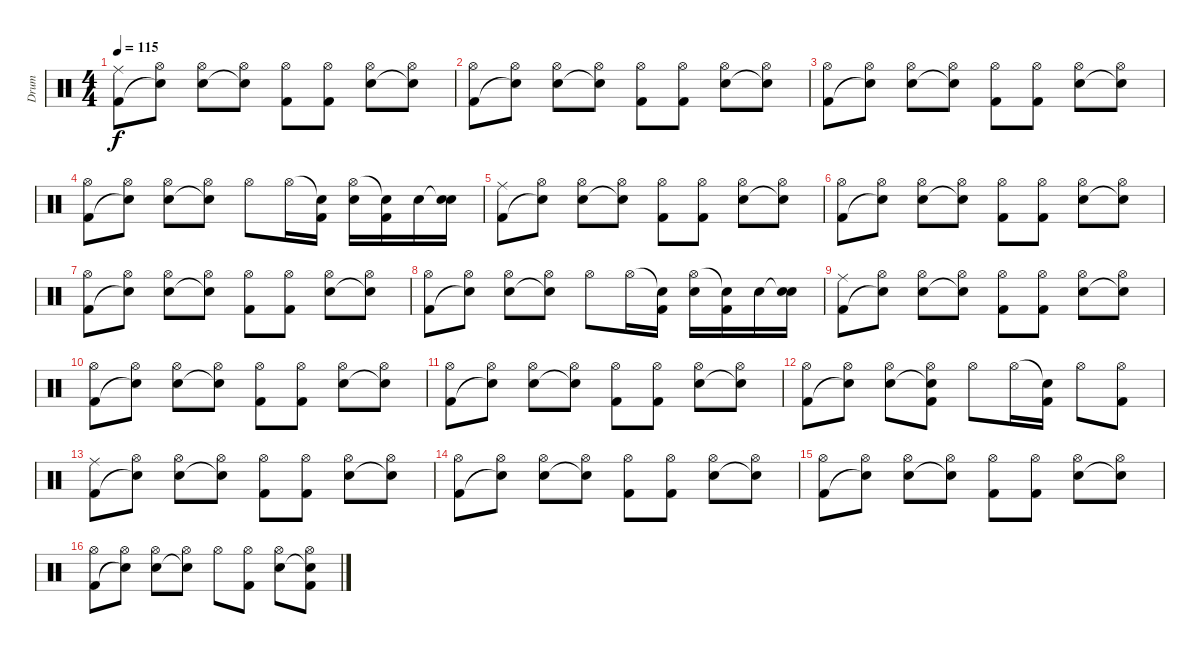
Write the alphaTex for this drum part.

\track ("Drum" "Drum") {instrument percussion}
\staff {score}
\articulation defaults
\ts (4 4)
\tempo 115
\clef neutral
\ks c
("Ride (middle)" "Kick (hit) 2").8{dy f} ("Hi-Hat (open)" "Snare (hit)"{t}).8 ("Hi-Hat (open)" "Electric Snare (hit)").8 ("Hi-Hat (open)" "Snare (hit)"{t}).8 ("Hi-Hat (open)" "Kick (hit) 2").8 ("Hi-Hat (open)" "Kick (hit) 2").8 ("Hi-Hat (open)" "Electric Snare (hit)").8 ("Hi-Hat (open)" "Snare (hit)"{t}).8 |
("Hi-Hat (open)" "Kick (hit) 2").8 ("Hi-Hat (open)" "Snare (hit)"{t}).8 ("Hi-Hat (open)" "Electric Snare (hit)").8 ("Hi-Hat (open)" "Snare (hit)"{t}).8 ("Hi-Hat (open)" "Kick (hit) 2").8 ("Hi-Hat (open)" "Kick (hit) 2").8 ("Hi-Hat (open)" "Electric Snare (hit)").8 ("Hi-Hat (open)" "Snare (hit)"{t}).8 |
("Hi-Hat (open)" "Kick (hit) 2").8 ("Hi-Hat (open)" "Snare (hit)"{t}).8 ("Hi-Hat (open)" "Electric Snare (hit)").8 ("Hi-Hat (open)" "Snare (hit)"{t}).8 ("Hi-Hat (open)" "Kick (hit) 2").8 ("Hi-Hat (open)" "Kick (hit) 2").8 ("Hi-Hat (open)" "Electric Snare (hit)").8 ("Hi-Hat (open)" "Snare (hit)"{t}).8 |
("Hi-Hat (open)" "Kick (hit) 2").8 ("Hi-Hat (open)" "Snare (hit)"{t}).8 ("Hi-Hat (open)" "Electric Snare (hit)").8 ("Hi-Hat (open)" "Snare (hit)"{t}).8 "Hi-Hat (open)".8 "Hi-Hat (open)".16 ("Snare (hit)"{t} "Kick (hit) 2").16 ("Hi-Hat (open)" "Electric Snare (hit)").16 ("Snare (hit)"{t} "Kick (hit) 2").16 "Electric Snare (hit)".16 ("Snare (hit)"{t} "Electric Snare (hit)").16 |
("Ride (middle)" "Kick (hit) 2").8 ("Hi-Hat (open)" "Snare (hit)"{t}).8 ("Hi-Hat (open)" "Electric Snare (hit)").8 ("Hi-Hat (open)" "Snare (hit)"{t}).8 ("Hi-Hat (open)" "Kick (hit) 2").8 ("Hi-Hat (open)" "Kick (hit) 2").8 ("Hi-Hat (open)" "Electric Snare (hit)").8 ("Hi-Hat (open)" "Snare (hit)"{t}).8 |
("Hi-Hat (open)" "Kick (hit) 2").8 ("Hi-Hat (open)" "Snare (hit)"{t}).8 ("Hi-Hat (open)" "Electric Snare (hit)").8 ("Hi-Hat (open)" "Snare (hit)"{t}).8 ("Hi-Hat (open)" "Kick (hit) 2").8 ("Hi-Hat (open)" "Kick (hit) 2").8 ("Hi-Hat (open)" "Electric Snare (hit)").8 ("Hi-Hat (open)" "Snare (hit)"{t}).8 |
("Hi-Hat (open)" "Kick (hit) 2").8 ("Hi-Hat (open)" "Snare (hit)"{t}).8 ("Hi-Hat (open)" "Electric Snare (hit)").8 ("Hi-Hat (open)" "Snare (hit)"{t}).8 ("Hi-Hat (open)" "Kick (hit) 2").8 ("Hi-Hat (open)" "Kick (hit) 2").8 ("Hi-Hat (open)" "Electric Snare (hit)").8 ("Hi-Hat (open)" "Snare (hit)"{t}).8 |
("Hi-Hat (open)" "Kick (hit) 2").8 ("Hi-Hat (open)" "Snare (hit)"{t}).8 ("Hi-Hat (open)" "Electric Snare (hit)").8 ("Hi-Hat (open)" "Snare (hit)"{t}).8 "Hi-Hat (open)".8 "Hi-Hat (open)".16 ("Snare (hit)"{t} "Kick (hit) 2").16 ("Hi-Hat (open)" "Electric Snare (hit)").16 ("Snare (hit)"{t} "Kick (hit) 2").16 "Electric Snare (hit)".16 ("Snare (hit)"{t} "Electric Snare (hit)").16 |
("Ride (middle)" "Kick (hit) 2").8 ("Hi-Hat (open)" "Snare (hit)"{t}).8 ("Hi-Hat (open)" "Electric Snare (hit)").8 ("Hi-Hat (open)" "Snare (hit)"{t}).8 ("Hi-Hat (open)" "Kick (hit) 2").8 ("Hi-Hat (open)" "Kick (hit) 2").8 ("Hi-Hat (open)" "Electric Snare (hit)").8 ("Hi-Hat (open)" "Snare (hit)"{t}).8 |
("Hi-Hat (open)" "Kick (hit) 2").8 ("Hi-Hat (open)" "Snare (hit)"{t}).8 ("Hi-Hat (open)" "Electric Snare (hit)").8 ("Hi-Hat (open)" "Snare (hit)"{t}).8 ("Hi-Hat (open)" "Kick (hit) 2").8 ("Hi-Hat (open)" "Kick (hit) 2").8 ("Hi-Hat (open)" "Electric Snare (hit)").8 ("Hi-Hat (open)" "Snare (hit)"{t}).8 |
("Hi-Hat (open)" "Kick (hit) 2").8 ("Hi-Hat (open)" "Snare (hit)"{t}).8 ("Hi-Hat (open)" "Electric Snare (hit)").8 ("Hi-Hat (open)" "Snare (hit)"{t}).8 ("Hi-Hat (open)" "Kick (hit) 2").8 ("Hi-Hat (open)" "Kick (hit) 2").8 ("Hi-Hat (open)" "Electric Snare (hit)").8 ("Hi-Hat (open)" "Snare (hit)"{t}).8 |
("Hi-Hat (open)" "Kick (hit) 2").8 ("Hi-Hat (open)" "Snare (hit)"{t}).8 ("Hi-Hat (open)" "Electric Snare (hit)").8 ("Hi-Hat (open)" "Snare (hit)"{t} "Kick (hit) 2").8 "Hi-Hat (open)".8 "Hi-Hat (open)".16 ("Snare (hit)"{t} "Kick (hit) 2").16 "Hi-Hat (open)".8 ("Hi-Hat (open)" "Kick (hit) 2").8 |
("Ride (middle)" "Kick (hit) 2").8 ("Hi-Hat (open)" "Snare (hit)"{t}).8 ("Hi-Hat (open)" "Electric Snare (hit)").8 ("Hi-Hat (open)" "Snare (hit)"{t}).8 ("Hi-Hat (open)" "Kick (hit) 2").8 ("Hi-Hat (open)" "Kick (hit) 2").8 ("Hi-Hat (open)" "Electric Snare (hit)").8 ("Hi-Hat (open)" "Snare (hit)"{t}).8 |
("Hi-Hat (open)" "Kick (hit) 2").8 ("Hi-Hat (open)" "Snare (hit)"{t}).8 ("Hi-Hat (open)" "Electric Snare (hit)").8 ("Hi-Hat (open)" "Snare (hit)"{t}).8 ("Hi-Hat (open)" "Kick (hit) 2").8 ("Hi-Hat (open)" "Kick (hit) 2").8 ("Hi-Hat (open)" "Electric Snare (hit)").8 ("Hi-Hat (open)" "Snare (hit)"{t}).8 |
("Hi-Hat (open)" "Kick (hit) 2").8 ("Hi-Hat (open)" "Snare (hit)"{t}).8 ("Hi-Hat (open)" "Electric Snare (hit)").8 ("Hi-Hat (open)" "Snare (hit)"{t}).8 ("Hi-Hat (open)" "Kick (hit) 2").8 ("Hi-Hat (open)" "Kick (hit) 2").8 ("Hi-Hat (open)" "Electric Snare (hit)").8 ("Hi-Hat (open)" "Snare (hit)"{t}).8 |
("Hi-Hat (open)" "Kick (hit) 2").8 ("Hi-Hat (open)" "Snare (hit)"{t}).8 ("Hi-Hat (open)" "Electric Snare (hit)").8 ("Hi-Hat (open)" "Snare (hit)"{t}).8 "Hi-Hat (open)".8 ("Hi-Hat (open)" "Kick (hit) 2").8 ("Hi-Hat (open)" "Electric Snare (hit)").8 ("Hi-Hat (open)" "Snare (hit)"{t} "Kick (hit) 2").8
